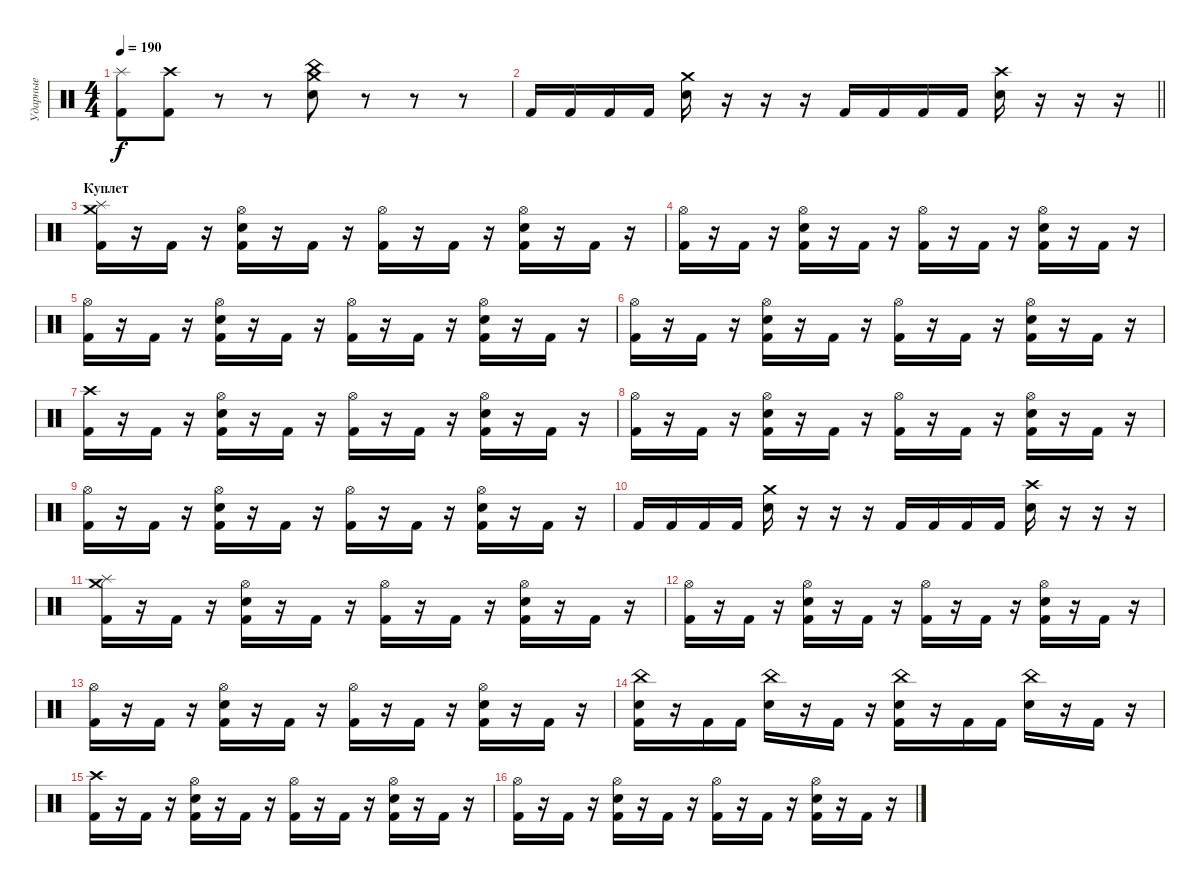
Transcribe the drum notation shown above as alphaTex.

\track ("Ударные" "Ударные") {instrument percussion}
\staff {score}
\articulation defaults
\ts (4 4)
\tempo 190
\clef neutral
\ks c
("Kick (hit) 2" "Splash (hit)").8{dy f} ("Kick (hit) 2" "Crash high (hit)").8 r.8 r.8 ("Electric Snare (hit)" "China (hit)" "Crash medium (hit)").8 r.8 r.8 r.8 |
\barLineRight lightlight "Kick (hit) 2".16 "Kick (hit) 2".16 "Kick (hit) 2".16 "Kick (hit) 2".16
("Electric Snare (hit)" "Crash medium (hit)").16 r.16 r.16 r.16 "Kick (hit) 2".16 "Kick (hit) 2".16 "Kick (hit) 2".16 "Kick (hit) 2".16 ("Electric Snare (hit)" "Crash high (hit)").16 r.16 r.16 r.16 |
\section ("" "Куплет")
("Kick (hit) 2" "Splash (hit)" "Crash medium (hit)").16 r.16 "Kick (hit) 2".16 r.16 ("Kick (hit) 2" "Electric Snare (hit)" "Hi-Hat (open)").16 r.16 "Kick (hit) 2".16 r.16 ("Kick (hit) 2" "Hi-Hat (open)").16 r.16 "Kick (hit) 2".16 r.16 ("Kick (hit) 2" "Electric Snare (hit)" "Hi-Hat (open)").16 r.16 "Kick (hit) 2".16 r.16 |
("Kick (hit) 2" "Hi-Hat (open)").16 r.16 "Kick (hit) 2".16 r.16 ("Kick (hit) 2" "Electric Snare (hit)" "Hi-Hat (open)").16 r.16 "Kick (hit) 2".16 r.16 ("Kick (hit) 2" "Hi-Hat (open)").16 r.16 "Kick (hit) 2".16 r.16 ("Kick (hit) 2" "Electric Snare (hit)" "Hi-Hat (open)").16 r.16 "Kick (hit) 2".16 r.16 |
("Kick (hit) 2" "Hi-Hat (open)").16 r.16 "Kick (hit) 2".16 r.16 ("Kick (hit) 2" "Electric Snare (hit)" "Hi-Hat (open)").16 r.16 "Kick (hit) 2".16 r.16 ("Kick (hit) 2" "Hi-Hat (open)").16 r.16 "Kick (hit) 2".16 r.16 ("Kick (hit) 2" "Electric Snare (hit)" "Hi-Hat (open)").16 r.16 "Kick (hit) 2".16 r.16 |
("Kick (hit) 2" "Hi-Hat (open)").16 r.16 "Kick (hit) 2".16 r.16 ("Kick (hit) 2" "Electric Snare (hit)" "Hi-Hat (open)").16 r.16 "Kick (hit) 2".16 r.16 ("Kick (hit) 2" "Hi-Hat (open)").16 r.16 "Kick (hit) 2".16 r.16 ("Kick (hit) 2" "Electric Snare (hit)" "Hi-Hat (open)").16 r.16 "Kick (hit) 2".16 r.16 |
("Kick (hit) 2" "Crash high (hit)").16 r.16 "Kick (hit) 2".16 r.16 ("Kick (hit) 2" "Electric Snare (hit)" "Hi-Hat (open)").16 r.16 "Kick (hit) 2".16 r.16 ("Kick (hit) 2" "Hi-Hat (open)").16 r.16 "Kick (hit) 2".16 r.16 ("Kick (hit) 2" "Electric Snare (hit)" "Hi-Hat (open)").16 r.16 "Kick (hit) 2".16 r.16 |
("Kick (hit) 2" "Hi-Hat (open)").16 r.16 "Kick (hit) 2".16 r.16 ("Kick (hit) 2" "Electric Snare (hit)" "Hi-Hat (open)").16 r.16 "Kick (hit) 2".16 r.16 ("Kick (hit) 2" "Hi-Hat (open)").16 r.16 "Kick (hit) 2".16 r.16 ("Kick (hit) 2" "Electric Snare (hit)" "Hi-Hat (open)").16 r.16 "Kick (hit) 2".16 r.16 |
("Kick (hit) 2" "Hi-Hat (open)").16 r.16 "Kick (hit) 2".16 r.16 ("Kick (hit) 2" "Electric Snare (hit)" "Hi-Hat (open)").16 r.16 "Kick (hit) 2".16 r.16 ("Kick (hit) 2" "Hi-Hat (open)").16 r.16 "Kick (hit) 2".16 r.16 ("Kick (hit) 2" "Electric Snare (hit)" "Hi-Hat (open)").16 r.16 "Kick (hit) 2".16 r.16 |
"Kick (hit) 2".16 "Kick (hit) 2".16 "Kick (hit) 2".16 "Kick (hit) 2".16 ("Electric Snare (hit)" "Crash medium (hit)").16 r.16 r.16 r.16 "Kick (hit) 2".16 "Kick (hit) 2".16 "Kick (hit) 2".16 "Kick (hit) 2".16 ("Electric Snare (hit)" "Crash high (hit)").16 r.16 r.16 r.16 |
("Kick (hit) 2" "Splash (hit)" "Crash medium (hit)").16 r.16 "Kick (hit) 2".16 r.16 ("Kick (hit) 2" "Electric Snare (hit)" "Hi-Hat (open)").16 r.16 "Kick (hit) 2".16 r.16 ("Kick (hit) 2" "Hi-Hat (open)").16 r.16 "Kick (hit) 2".16 r.16 ("Kick (hit) 2" "Electric Snare (hit)" "Hi-Hat (open)").16 r.16 "Kick (hit) 2".16 r.16 |
("Kick (hit) 2" "Hi-Hat (open)").16 r.16 "Kick (hit) 2".16 r.16 ("Kick (hit) 2" "Electric Snare (hit)" "Hi-Hat (open)").16 r.16 "Kick (hit) 2".16 r.16 ("Kick (hit) 2" "Hi-Hat (open)").16 r.16 "Kick (hit) 2".16 r.16 ("Kick (hit) 2" "Electric Snare (hit)" "Hi-Hat (open)").16 r.16 "Kick (hit) 2".16 r.16 |
("Kick (hit) 2" "Hi-Hat (open)").16 r.16 "Kick (hit) 2".16 r.16 ("Kick (hit) 2" "Electric Snare (hit)" "Hi-Hat (open)").16 r.16 "Kick (hit) 2".16 r.16 ("Kick (hit) 2" "Hi-Hat (open)").16 r.16 "Kick (hit) 2".16 r.16 ("Kick (hit) 2" "Electric Snare (hit)" "Hi-Hat (open)").16 r.16 "Kick (hit) 2".16 r.16 |
("Kick (hit) 2" "Electric Snare (hit)" "China (hit)").16 r.16 "Kick (hit) 2".16 "Kick (hit) 2".16 ("Electric Snare (hit)" "China (hit)").16 r.16 "Kick (hit) 2".16 r.16 ("Kick (hit) 2" "Electric Snare (hit)" "China (hit)").16 r.16 "Kick (hit) 2".16 "Kick (hit) 2".16 ("Electric Snare (hit)" "China (hit)").16 r.16 "Kick (hit) 2".16 r.16 |
("Kick (hit) 2" "Crash high (hit)").16 r.16 "Kick (hit) 2".16 r.16 ("Kick (hit) 2" "Electric Snare (hit)" "Hi-Hat (open)").16 r.16 "Kick (hit) 2".16 r.16 ("Kick (hit) 2" "Hi-Hat (open)").16 r.16 "Kick (hit) 2".16 r.16 ("Kick (hit) 2" "Electric Snare (hit)" "Hi-Hat (open)").16 r.16 "Kick (hit) 2".16 r.16 |
("Kick (hit) 2" "Hi-Hat (open)").16 r.16 "Kick (hit) 2".16 r.16 ("Kick (hit) 2" "Electric Snare (hit)" "Hi-Hat (open)").16 r.16 "Kick (hit) 2".16 r.16 ("Kick (hit) 2" "Hi-Hat (open)").16 r.16 "Kick (hit) 2".16 r.16 ("Kick (hit) 2" "Electric Snare (hit)" "Hi-Hat (open)").16 r.16 "Kick (hit) 2".16 r.16
